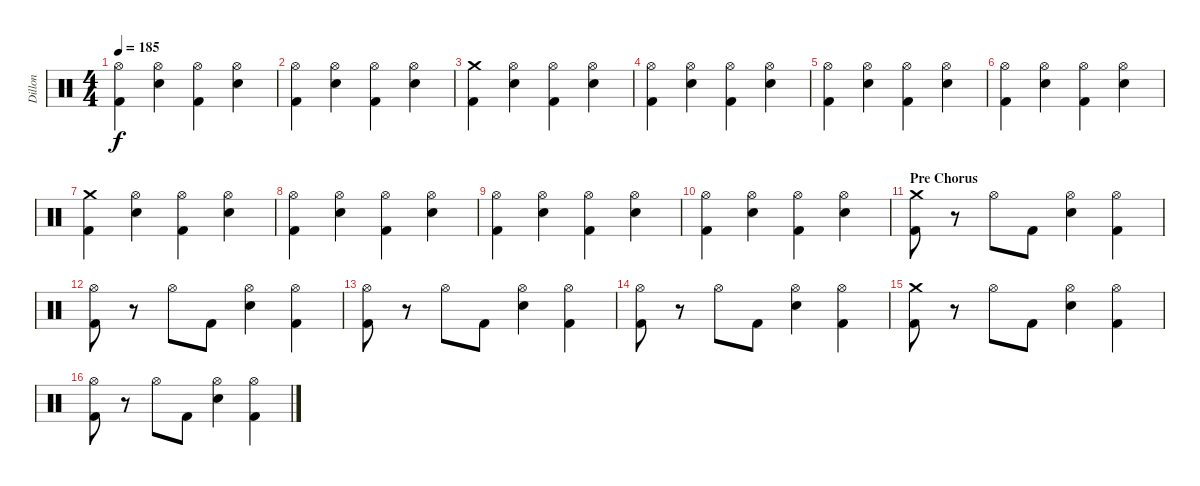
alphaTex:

\track ("Dillon" "Dillon") {instrument percussion}
\staff {score}
\articulation defaults
\ts (4 4)
\tempo 185
\clef neutral
\ks c
("Hi-Hat (open)" "Kick (hit) 2").4{dy f} ("Hi-Hat (open)" "Electric Snare (hit)").4 ("Hi-Hat (open)" "Kick (hit) 2").4 ("Hi-Hat (open)" "Electric Snare (hit)").4 |
("Hi-Hat (open)" "Kick (hit) 2").4 ("Hi-Hat (open)" "Electric Snare (hit)").4 ("Hi-Hat (open)" "Kick (hit) 2").4 ("Hi-Hat (open)" "Electric Snare (hit)").4 |
("Crash medium (hit)" "Kick (hit) 2").4 ("Hi-Hat (open)" "Electric Snare (hit)").4 ("Hi-Hat (open)" "Kick (hit) 2").4 ("Hi-Hat (open)" "Electric Snare (hit)").4 |
("Hi-Hat (open)" "Kick (hit) 2").4 ("Hi-Hat (open)" "Electric Snare (hit)").4 ("Hi-Hat (open)" "Kick (hit) 2").4 ("Hi-Hat (open)" "Electric Snare (hit)").4 |
("Hi-Hat (open)" "Kick (hit) 2").4 ("Hi-Hat (open)" "Electric Snare (hit)").4 ("Hi-Hat (open)" "Kick (hit) 2").4 ("Hi-Hat (open)" "Electric Snare (hit)").4 |
("Hi-Hat (open)" "Kick (hit) 2").4 ("Hi-Hat (open)" "Electric Snare (hit)").4 ("Hi-Hat (open)" "Kick (hit) 2").4 ("Hi-Hat (open)" "Electric Snare (hit)").4 |
("Crash medium (hit)" "Kick (hit) 2").4 ("Hi-Hat (open)" "Electric Snare (hit)").4 ("Hi-Hat (open)" "Kick (hit) 2").4 ("Hi-Hat (open)" "Electric Snare (hit)").4 |
("Hi-Hat (open)" "Kick (hit) 2").4 ("Hi-Hat (open)" "Electric Snare (hit)").4 ("Hi-Hat (open)" "Kick (hit) 2").4 ("Hi-Hat (open)" "Electric Snare (hit)").4 |
("Hi-Hat (open)" "Kick (hit) 2").4 ("Hi-Hat (open)" "Electric Snare (hit)").4 ("Hi-Hat (open)" "Kick (hit) 2").4 ("Hi-Hat (open)" "Electric Snare (hit)").4 |
("Hi-Hat (open)" "Kick (hit) 2").4 ("Hi-Hat (open)" "Electric Snare (hit)").4 ("Hi-Hat (open)" "Kick (hit) 2").4 ("Hi-Hat (open)" "Electric Snare (hit)").4 |
\section ("" "Pre Chorus")
("Crash medium (hit)" "Kick (hit) 2").8 r.8 "Hi-Hat (open)".8 "Kick (hit) 2".8 ("Hi-Hat (open)" "Electric Snare (hit)").4 ("Hi-Hat (open)" "Kick (hit) 2").4 |
("Hi-Hat (open)" "Kick (hit) 2").8 r.8 "Hi-Hat (open)".8 "Kick (hit) 2".8 ("Hi-Hat (open)" "Electric Snare (hit)").4 ("Hi-Hat (open)" "Kick (hit) 2").4 |
("Hi-Hat (open)" "Kick (hit) 2").8 r.8 "Hi-Hat (open)".8 "Kick (hit) 2".8 ("Hi-Hat (open)" "Electric Snare (hit)").4 ("Hi-Hat (open)" "Kick (hit) 2").4 |
("Hi-Hat (open)" "Kick (hit) 2").8 r.8 "Hi-Hat (open)".8 "Kick (hit) 2".8 ("Hi-Hat (open)" "Electric Snare (hit)").4 ("Hi-Hat (open)" "Kick (hit) 2").4 |
("Crash medium (hit)" "Kick (hit) 2").8 r.8 "Hi-Hat (open)".8 "Kick (hit) 2".8 ("Hi-Hat (open)" "Electric Snare (hit)").4 ("Hi-Hat (open)" "Kick (hit) 2").4 |
("Hi-Hat (open)" "Kick (hit) 2").8 r.8 "Hi-Hat (open)".8 "Kick (hit) 2".8 ("Hi-Hat (open)" "Electric Snare (hit)").4 ("Hi-Hat (open)" "Kick (hit) 2").4
